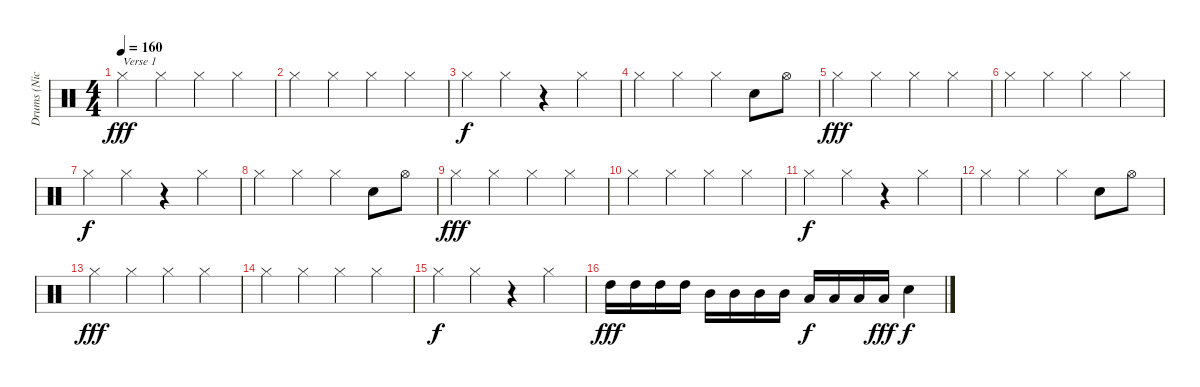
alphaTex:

\track ("Drums (Nicko)" "Drums (Nic") {instrument percussion}
\staff {score}
\articulation defaults
\ts (4 4)
\tempo 160
\clef neutral
\ks c "Hi-Hat (closed)".4{txt "Verse 1" dy fff} "Hi-Hat (closed)".4 "Hi-Hat (closed)".4 "Hi-Hat (closed)".4
|
"Hi-Hat (closed)".4 "Hi-Hat (closed)".4 "Hi-Hat (closed)".4 "Hi-Hat (closed)".4 |
"Hi-Hat (closed)".4{dy f} "Hi-Hat (closed)".4 r.4 "Hi-Hat (closed)".4 |
"Hi-Hat (closed)".4 "Hi-Hat (closed)".4 "Hi-Hat (closed)".4 "Snare (hit) 2".8 "Hi-Hat (open)".8 |
"Hi-Hat (closed)".4{dy fff} "Hi-Hat (closed)".4 "Hi-Hat (closed)".4 "Hi-Hat (closed)".4 |
"Hi-Hat (closed)".4 "Hi-Hat (closed)".4 "Hi-Hat (closed)".4 "Hi-Hat (closed)".4 |
"Hi-Hat (closed)".4{dy f} "Hi-Hat (closed)".4 r.4 "Hi-Hat (closed)".4 |
"Hi-Hat (closed)".4 "Hi-Hat (closed)".4 "Hi-Hat (closed)".4 "Snare (hit) 2".8 "Hi-Hat (open)".8 |
"Hi-Hat (closed)".4{dy fff} "Hi-Hat (closed)".4 "Hi-Hat (closed)".4 "Hi-Hat (closed)".4 |
"Hi-Hat (closed)".4 "Hi-Hat (closed)".4 "Hi-Hat (closed)".4 "Hi-Hat (closed)".4 |
"Hi-Hat (closed)".4{dy f} "Hi-Hat (closed)".4 r.4 "Hi-Hat (closed)".4 |
"Hi-Hat (closed)".4 "Hi-Hat (closed)".4 "Hi-Hat (closed)".4 "Snare (hit) 2".8 "Hi-Hat (open)".8 |
"Hi-Hat (closed)".4{dy fff} "Hi-Hat (closed)".4 "Hi-Hat (closed)".4 "Hi-Hat (closed)".4 |
"Hi-Hat (closed)".4 "Hi-Hat (closed)".4 "Hi-Hat (closed)".4 "Hi-Hat (closed)".4 |
"Hi-Hat (closed)".4{dy f} "Hi-Hat (closed)".4 r.4 "Hi-Hat (closed)".4 |
"High Tom (hit)".16{dy fff} "High Tom (hit)".16 "High Tom (hit)".16 "High Tom (hit)".16 "Mid Tom (hit)".16 "Mid Tom (hit)".16 "Mid Tom (hit)".16 "Mid Tom (hit)".16 "Low Tom (hit)".16{dy f} "Low Tom (hit)".16 "Low Tom (hit)".16 "Low Tom (hit)".16{dy fff} "Snare (hit) 2".4{dy f}
